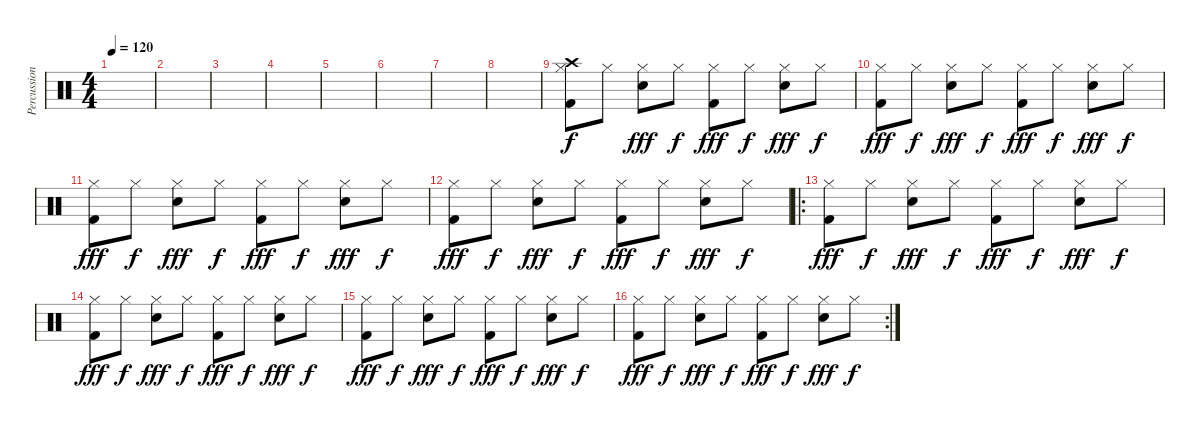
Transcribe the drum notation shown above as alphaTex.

\track ("Percussion" "Percussion") {instrument percussion}
\staff {score}
\articulation defaults
\ts (4 4)
\tempo 120
\clef neutral
\ks c
|
|
|
|
|
|
|
|
("Hi-Hat (closed)" "Kick (hit) 2" "Crash high (hit)").8 "Hi-Hat (closed)".8{dy f} ("Hi-Hat (closed)" "Electric Snare (hit)").8{dy fff} "Hi-Hat (closed)".8{dy f} ("Hi-Hat (closed)" "Kick (hit) 2").8{dy fff} "Hi-Hat (closed)".8{dy f} ("Hi-Hat (closed)" "Electric Snare (hit)").8{dy fff} "Hi-Hat (closed)".8{dy f} |
("Hi-Hat (closed)" "Kick (hit) 2").8{dy fff} "Hi-Hat (closed)".8{dy f} ("Hi-Hat (closed)" "Electric Snare (hit)").8{dy fff} "Hi-Hat (closed)".8{dy f} ("Hi-Hat (closed)" "Kick (hit) 2").8{dy fff} "Hi-Hat (closed)".8{dy f} ("Hi-Hat (closed)" "Electric Snare (hit)").8{dy fff} "Hi-Hat (closed)".8{dy f} |
("Hi-Hat (closed)" "Kick (hit) 2").8{dy fff} "Hi-Hat (closed)".8{dy f} ("Hi-Hat (closed)" "Electric Snare (hit)").8{dy fff} "Hi-Hat (closed)".8{dy f} ("Hi-Hat (closed)" "Kick (hit) 2").8{dy fff} "Hi-Hat (closed)".8{dy f} ("Hi-Hat (closed)" "Electric Snare (hit)").8{dy fff} "Hi-Hat (closed)".8{dy f} |
("Hi-Hat (closed)" "Kick (hit) 2").8{dy fff} "Hi-Hat (closed)".8{dy f} ("Hi-Hat (closed)" "Electric Snare (hit)").8{dy fff} "Hi-Hat (closed)".8{dy f} ("Hi-Hat (closed)" "Kick (hit) 2").8{dy fff} "Hi-Hat (closed)".8{dy f} ("Hi-Hat (closed)" "Electric Snare (hit)").8{dy fff} "Hi-Hat (closed)".8{dy f} |
\ro
("Hi-Hat (closed)" "Kick (hit) 2").8{dy fff} "Hi-Hat (closed)".8{dy f} ("Hi-Hat (closed)" "Electric Snare (hit)").8{dy fff} "Hi-Hat (closed)".8{dy f} ("Hi-Hat (closed)" "Kick (hit) 2").8{dy fff} "Hi-Hat (closed)".8{dy f} ("Hi-Hat (closed)" "Electric Snare (hit)").8{dy fff} "Hi-Hat (closed)".8{dy f} |
("Hi-Hat (closed)" "Kick (hit) 2").8{dy fff} "Hi-Hat (closed)".8{dy f} ("Hi-Hat (closed)" "Electric Snare (hit)").8{dy fff} "Hi-Hat (closed)".8{dy f} ("Hi-Hat (closed)" "Kick (hit) 2").8{dy fff} "Hi-Hat (closed)".8{dy f} ("Hi-Hat (closed)" "Electric Snare (hit)").8{dy fff} "Hi-Hat (closed)".8{dy f} |
("Hi-Hat (closed)" "Kick (hit) 2").8{dy fff} "Hi-Hat (closed)".8{dy f} ("Hi-Hat (closed)" "Electric Snare (hit)").8{dy fff} "Hi-Hat (closed)".8{dy f} ("Hi-Hat (closed)" "Kick (hit) 2").8{dy fff} "Hi-Hat (closed)".8{dy f} ("Hi-Hat (closed)" "Electric Snare (hit)").8{dy fff} "Hi-Hat (closed)".8{dy f} |
\rc 2
("Hi-Hat (closed)" "Kick (hit) 2").8{dy fff} "Hi-Hat (closed)".8{dy f} ("Hi-Hat (closed)" "Electric Snare (hit)").8{dy fff} "Hi-Hat (closed)".8{dy f} ("Hi-Hat (closed)" "Kick (hit) 2").8{dy fff} "Hi-Hat (closed)".8{dy f} ("Hi-Hat (closed)" "Electric Snare (hit)").8{dy fff} "Hi-Hat (closed)".8{dy f}
